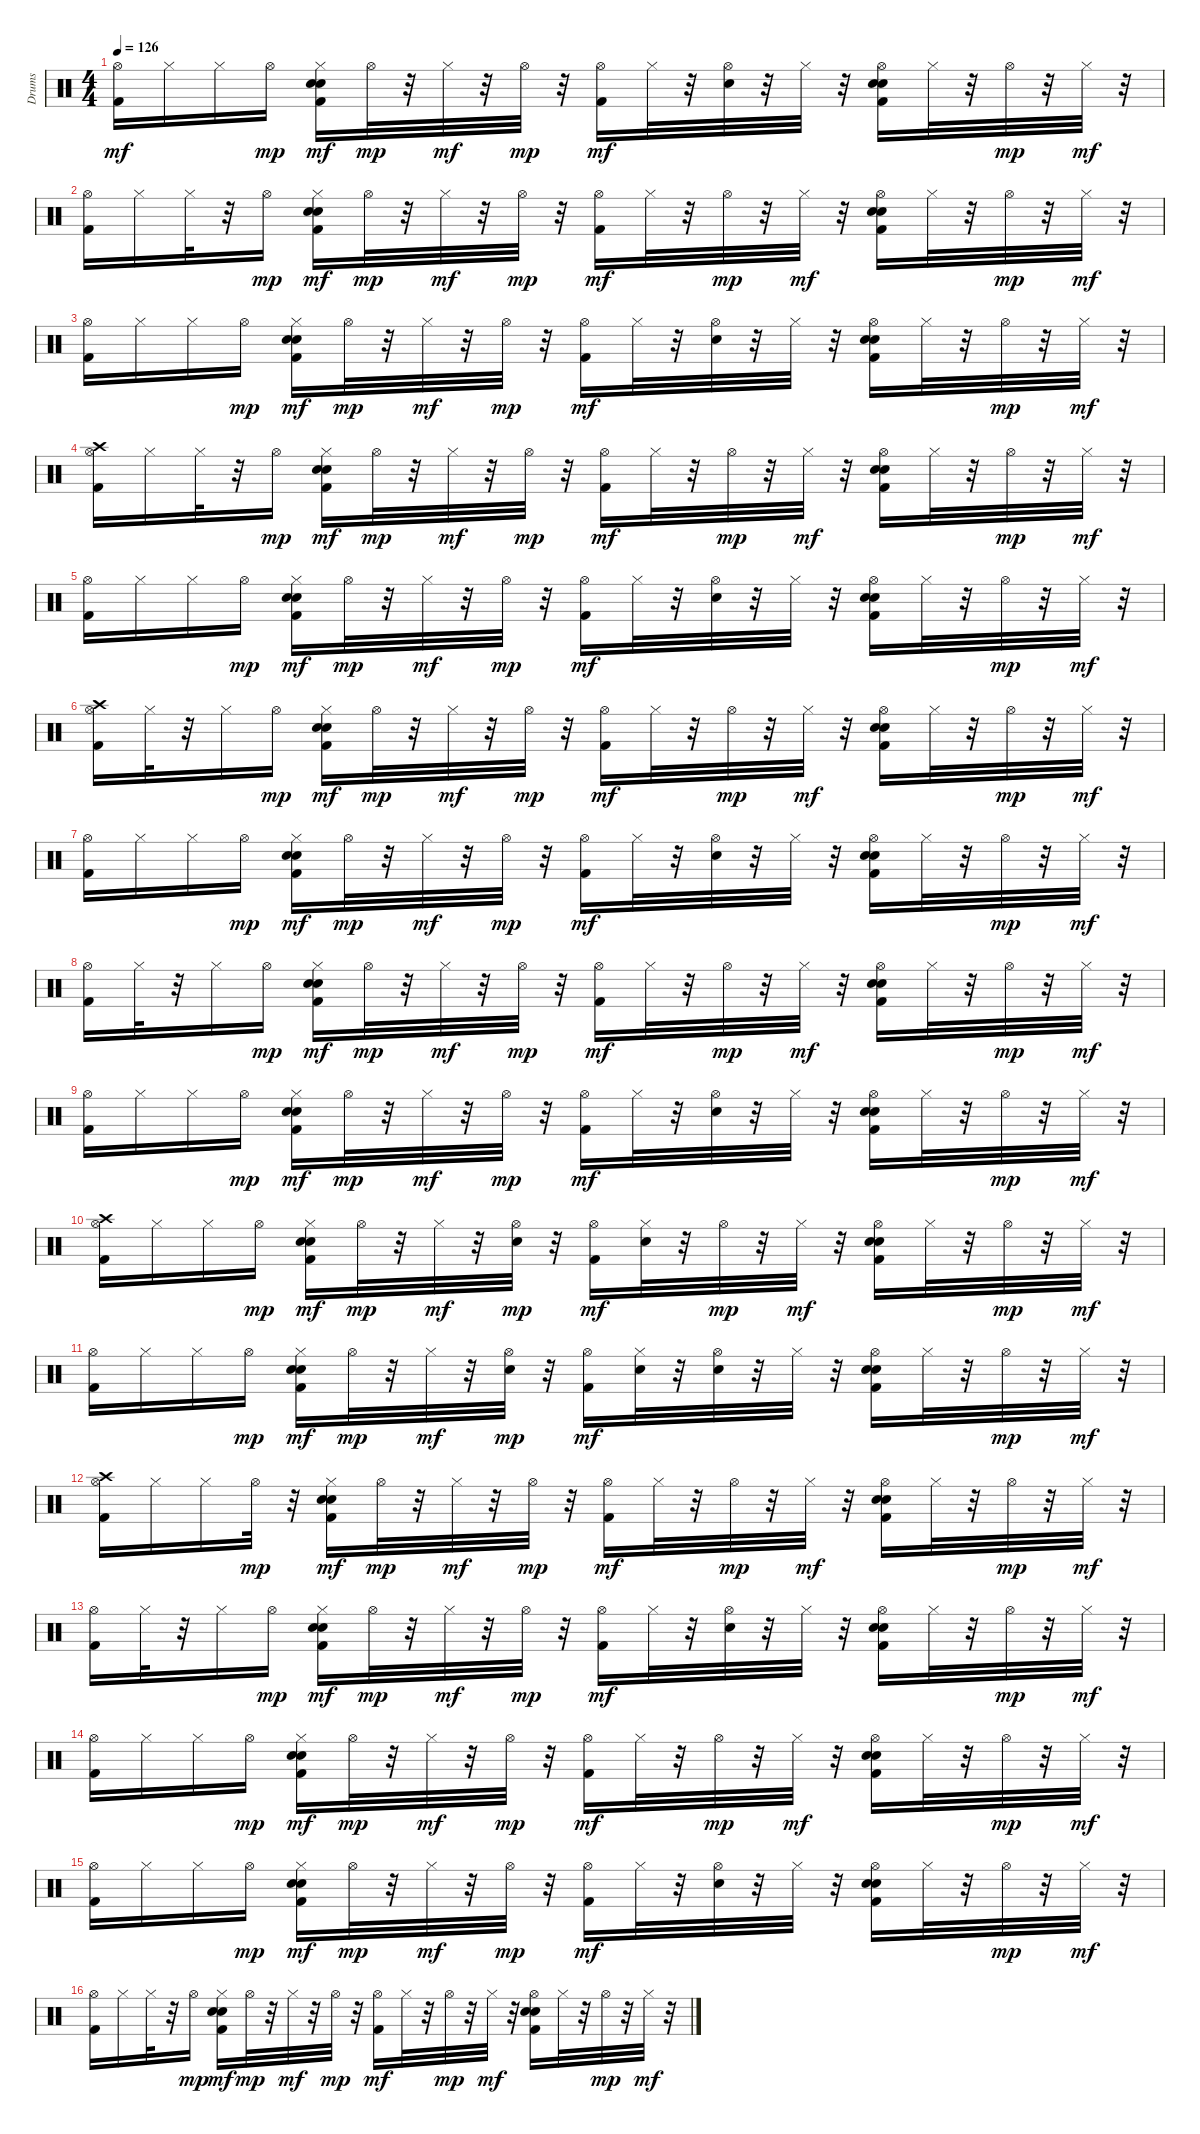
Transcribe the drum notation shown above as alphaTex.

\track ("Drums" "Drums") {instrument percussion}
\staff {score}
\articulation defaults
\ts (4 4)
\tempo 126
\clef neutral
\ks c
("Hi-Hat (open)" "Kick (hit) 2").16{dy mf} "Hi-Hat (closed)".16 "Hi-Hat (closed)".16 "Hi-Hat (open)".16{dy mp} ("Electric Snare (hit)" "Hi-Hat (closed)" "Hand Clap (hit)" "Kick (hit) 2").16{dy mf} "Hi-Hat (open)".32{dy mp} r.32 "Hi-Hat (closed)".32{dy mf} r.32 "Hi-Hat (open)".32{dy mp} r.32 ("Hi-Hat (open)" "Kick (hit) 2").16{dy mf} "Hi-Hat (closed)".32 r.32 ("Hi-Hat (open)" "Hand Clap (hit)").32 r.32 "Hi-Hat (closed)".32 r.32 ("Electric Snare (hit)" "Hi-Hat (open)" "Hand Clap (hit)" "Kick (hit) 2").16 "Hi-Hat (closed)".32 r.32 "Hi-Hat (open)".32{dy mp} r.32 "Hi-Hat (closed)".32{dy mf} r.32 |
("Hi-Hat (open)" "Kick (hit) 2").16 "Hi-Hat (closed)".16 "Hi-Hat (closed)".32 r.32 "Hi-Hat (open)".16{dy mp} ("Electric Snare (hit)" "Hi-Hat (closed)" "Hand Clap (hit)" "Kick (hit) 2").16{dy mf} "Hi-Hat (open)".32{dy mp} r.32 "Hi-Hat (closed)".32{dy mf} r.32 "Hi-Hat (open)".32{dy mp} r.32 ("Hi-Hat (open)" "Kick (hit) 2").16{dy mf} "Hi-Hat (closed)".32 r.32 "Hi-Hat (open)".32{dy mp} r.32 "Hi-Hat (closed)".32{dy mf} r.32 ("Electric Snare (hit)" "Hi-Hat (open)" "Hand Clap (hit)" "Kick (hit) 2").16 "Hi-Hat (closed)".32 r.32 "Hi-Hat (open)".32{dy mp} r.32 "Hi-Hat (closed)".32{dy mf} r.32 |
("Hi-Hat (open)" "Kick (hit) 2").16 "Hi-Hat (closed)".16 "Hi-Hat (closed)".16 "Hi-Hat (open)".16{dy mp} ("Electric Snare (hit)" "Hi-Hat (closed)" "Hand Clap (hit)" "Kick (hit) 2").16{dy mf} "Hi-Hat (open)".32{dy mp} r.32 "Hi-Hat (closed)".32{dy mf} r.32 "Hi-Hat (open)".32{dy mp} r.32 ("Hi-Hat (open)" "Kick (hit) 2").16{dy mf} "Hi-Hat (closed)".32 r.32 ("Hi-Hat (open)" "Hand Clap (hit)").32 r.32 "Hi-Hat (closed)".32 r.32 ("Electric Snare (hit)" "Hi-Hat (open)" "Hand Clap (hit)" "Kick (hit) 2").16 "Hi-Hat (closed)".32 r.32 "Hi-Hat (open)".32{dy mp} r.32 "Hi-Hat (closed)".32{dy mf} r.32 |
("Hi-Hat (open)" "Crash high (hit)" "Kick (hit) 2").16 "Hi-Hat (closed)".16 "Hi-Hat (closed)".32 r.32 "Hi-Hat (open)".16{dy mp} ("Electric Snare (hit)" "Hi-Hat (closed)" "Hand Clap (hit)" "Kick (hit) 2").16{dy mf} "Hi-Hat (open)".32{dy mp} r.32 "Hi-Hat (closed)".32{dy mf} r.32 "Hi-Hat (open)".32{dy mp} r.32 ("Hi-Hat (open)" "Kick (hit) 2").16{dy mf} "Hi-Hat (closed)".32 r.32 "Hi-Hat (open)".32{dy mp} r.32 "Hi-Hat (closed)".32{dy mf} r.32 ("Electric Snare (hit)" "Hi-Hat (open)" "Hand Clap (hit)" "Kick (hit) 2").16 "Hi-Hat (closed)".32 r.32 "Hi-Hat (open)".32{dy mp} r.32 "Hi-Hat (closed)".32{dy mf} r.32 |
("Hi-Hat (open)" "Kick (hit) 2").16 "Hi-Hat (closed)".16 "Hi-Hat (closed)".16 "Hi-Hat (open)".16{dy mp} ("Electric Snare (hit)" "Hi-Hat (closed)" "Hand Clap (hit)" "Kick (hit) 2").16{dy mf} "Hi-Hat (open)".32{dy mp} r.32 "Hi-Hat (closed)".32{dy mf} r.32 "Hi-Hat (open)".32{dy mp} r.32 ("Hi-Hat (open)" "Kick (hit) 2").16{dy mf} "Hi-Hat (closed)".32 r.32 ("Hi-Hat (open)" "Hand Clap (hit)").32 r.32 "Hi-Hat (closed)".32 r.32 ("Electric Snare (hit)" "Hi-Hat (open)" "Hand Clap (hit)" "Kick (hit) 2").16 "Hi-Hat (closed)".32 r.32 "Hi-Hat (open)".32{dy mp} r.32 "Hi-Hat (closed)".32{dy mf} r.32 |
("Hi-Hat (open)" "Crash high (hit)" "Kick (hit) 2").16 "Hi-Hat (closed)".32 r.32 "Hi-Hat (closed)".16 "Hi-Hat (open)".16{dy mp} ("Electric Snare (hit)" "Hi-Hat (closed)" "Hand Clap (hit)" "Kick (hit) 2").16{dy mf} "Hi-Hat (open)".32{dy mp} r.32 "Hi-Hat (closed)".32{dy mf} r.32 "Hi-Hat (open)".32{dy mp} r.32 ("Hi-Hat (open)" "Kick (hit) 2").16{dy mf} "Hi-Hat (closed)".32 r.32 "Hi-Hat (open)".32{dy mp} r.32 "Hi-Hat (closed)".32{dy mf} r.32 ("Electric Snare (hit)" "Hi-Hat (open)" "Hand Clap (hit)" "Kick (hit) 2").16 "Hi-Hat (closed)".32 r.32 "Hi-Hat (open)".32{dy mp} r.32 "Hi-Hat (closed)".32{dy mf} r.32 |
("Hi-Hat (open)" "Kick (hit) 2").16 "Hi-Hat (closed)".16 "Hi-Hat (closed)".16 "Hi-Hat (open)".16{dy mp} ("Electric Snare (hit)" "Hi-Hat (closed)" "Hand Clap (hit)" "Kick (hit) 2").16{dy mf} "Hi-Hat (open)".32{dy mp} r.32 "Hi-Hat (closed)".32{dy mf} r.32 "Hi-Hat (open)".32{dy mp} r.32 ("Hi-Hat (open)" "Kick (hit) 2").16{dy mf} "Hi-Hat (closed)".32 r.32 ("Hi-Hat (open)" "Hand Clap (hit)").32 r.32 "Hi-Hat (closed)".32 r.32 ("Electric Snare (hit)" "Hi-Hat (open)" "Hand Clap (hit)" "Kick (hit) 2").16 "Hi-Hat (closed)".32 r.32 "Hi-Hat (open)".32{dy mp} r.32 "Hi-Hat (closed)".32{dy mf} r.32 |
("Hi-Hat (open)" "Kick (hit) 2").16 "Hi-Hat (closed)".32 r.32 "Hi-Hat (closed)".16 "Hi-Hat (open)".16{dy mp} ("Electric Snare (hit)" "Hi-Hat (closed)" "Hand Clap (hit)" "Kick (hit) 2").16{dy mf} "Hi-Hat (open)".32{dy mp} r.32 "Hi-Hat (closed)".32{dy mf} r.32 "Hi-Hat (open)".32{dy mp} r.32 ("Hi-Hat (open)" "Kick (hit) 2").16{dy mf} "Hi-Hat (closed)".32 r.32 "Hi-Hat (open)".32{dy mp} r.32 "Hi-Hat (closed)".32{dy mf} r.32 ("Electric Snare (hit)" "Hi-Hat (open)" "Hand Clap (hit)" "Kick (hit) 2").16 "Hi-Hat (closed)".32 r.32 "Hi-Hat (open)".32{dy mp} r.32 "Hi-Hat (closed)".32{dy mf} r.32 |
("Hi-Hat (open)" "Kick (hit) 2").16 "Hi-Hat (closed)".16 "Hi-Hat (closed)".16 "Hi-Hat (open)".16{dy mp} ("Electric Snare (hit)" "Hi-Hat (closed)" "Hand Clap (hit)" "Kick (hit) 2").16{dy mf} "Hi-Hat (open)".32{dy mp} r.32 "Hi-Hat (closed)".32{dy mf} r.32 "Hi-Hat (open)".32{dy mp} r.32 ("Hi-Hat (open)" "Kick (hit) 2").16{dy mf} "Hi-Hat (closed)".32 r.32 ("Hi-Hat (open)" "Hand Clap (hit)").32 r.32 "Hi-Hat (closed)".32 r.32 ("Electric Snare (hit)" "Hi-Hat (open)" "Hand Clap (hit)" "Kick (hit) 2").16 "Hi-Hat (closed)".32 r.32 "Hi-Hat (open)".32{dy mp} r.32 "Hi-Hat (closed)".32{dy mf} r.32 |
("Hi-Hat (open)" "Crash high (hit)" "Kick (hit) 2").16 "Hi-Hat (closed)".16 "Hi-Hat (closed)".16 "Hi-Hat (open)".16{dy mp} ("Electric Snare (hit)" "Hi-Hat (closed)" "Hand Clap (hit)" "Kick (hit) 2").16{dy mf} "Hi-Hat (open)".32{dy mp} r.32 "Hi-Hat (closed)".32{dy mf} r.32 ("Snare (hit) 2" "Hi-Hat (open)").32{dy mp} r.32 ("Hi-Hat (open)" "Kick (hit) 2").16{dy mf} ("Snare (hit) 2" "Hi-Hat (closed)").32 r.32 "Hi-Hat (open)".32{dy mp} r.32 "Hi-Hat (closed)".32{dy mf} r.32 ("Electric Snare (hit)" "Hi-Hat (open)" "Hand Clap (hit)" "Kick (hit) 2").16 "Hi-Hat (closed)".32 r.32 "Hi-Hat (open)".32{dy mp} r.32 "Hi-Hat (closed)".32{dy mf} r.32 |
("Hi-Hat (open)" "Kick (hit) 2").16 "Hi-Hat (closed)".16 "Hi-Hat (closed)".16 "Hi-Hat (open)".16{dy mp} ("Electric Snare (hit)" "Hi-Hat (closed)" "Hand Clap (hit)" "Kick (hit) 2").16{dy mf} "Hi-Hat (open)".32{dy mp} r.32 "Hi-Hat (closed)".32{dy mf} r.32 ("Snare (hit) 2" "Hi-Hat (open)").32{dy mp} r.32 ("Hi-Hat (open)" "Kick (hit) 2").16{dy mf} ("Snare (hit) 2" "Hi-Hat (closed)").32 r.32 ("Hi-Hat (open)" "Hand Clap (hit)").32 r.32 "Hi-Hat (closed)".32 r.32 ("Electric Snare (hit)" "Hi-Hat (open)" "Hand Clap (hit)" "Kick (hit) 2").16 "Hi-Hat (closed)".32 r.32 "Hi-Hat (open)".32{dy mp} r.32 "Hi-Hat (closed)".32{dy mf} r.32 |
("Hi-Hat (open)" "Crash high (hit)" "Kick (hit) 2").16 "Hi-Hat (closed)".16 "Hi-Hat (closed)".16 "Hi-Hat (open)".32{dy mp} r.32 ("Electric Snare (hit)" "Hi-Hat (closed)" "Hand Clap (hit)" "Kick (hit) 2").16{dy mf} "Hi-Hat (open)".32{dy mp} r.32 "Hi-Hat (closed)".32{dy mf} r.32 "Hi-Hat (open)".32{dy mp} r.32 ("Hi-Hat (open)" "Kick (hit) 2").16{dy mf} "Hi-Hat (closed)".32 r.32 "Hi-Hat (open)".32{dy mp} r.32 "Hi-Hat (closed)".32{dy mf} r.32 ("Electric Snare (hit)" "Hi-Hat (open)" "Hand Clap (hit)" "Kick (hit) 2").16 "Hi-Hat (closed)".32 r.32 "Hi-Hat (open)".32{dy mp} r.32 "Hi-Hat (closed)".32{dy mf} r.32 |
("Hi-Hat (open)" "Kick (hit) 2").16 "Hi-Hat (closed)".32 r.32 "Hi-Hat (closed)".16 "Hi-Hat (open)".16{dy mp} ("Electric Snare (hit)" "Hi-Hat (closed)" "Hand Clap (hit)" "Kick (hit) 2").16{dy mf} "Hi-Hat (open)".32{dy mp} r.32 "Hi-Hat (closed)".32{dy mf} r.32 "Hi-Hat (open)".32{dy mp} r.32 ("Hi-Hat (open)" "Kick (hit) 2").16{dy mf} "Hi-Hat (closed)".32 r.32 ("Hi-Hat (open)" "Hand Clap (hit)").32 r.32 "Hi-Hat (closed)".32 r.32 ("Electric Snare (hit)" "Hi-Hat (open)" "Hand Clap (hit)" "Kick (hit) 2").16 "Hi-Hat (closed)".32 r.32 "Hi-Hat (open)".32{dy mp} r.32 "Hi-Hat (closed)".32{dy mf} r.32 |
("Hi-Hat (open)" "Kick (hit) 2").16 "Hi-Hat (closed)".16 "Hi-Hat (closed)".16 "Hi-Hat (open)".16{dy mp} ("Electric Snare (hit)" "Hi-Hat (closed)" "Hand Clap (hit)" "Kick (hit) 2").16{dy mf} "Hi-Hat (open)".32{dy mp} r.32 "Hi-Hat (closed)".32{dy mf} r.32 "Hi-Hat (open)".32{dy mp} r.32 ("Hi-Hat (open)" "Kick (hit) 2").16{dy mf} "Hi-Hat (closed)".32 r.32 "Hi-Hat (open)".32{dy mp} r.32 "Hi-Hat (closed)".32{dy mf} r.32 ("Electric Snare (hit)" "Hi-Hat (open)" "Hand Clap (hit)" "Kick (hit) 2").16 "Hi-Hat (closed)".32 r.32 "Hi-Hat (open)".32{dy mp} r.32 "Hi-Hat (closed)".32{dy mf} r.32 |
("Hi-Hat (open)" "Kick (hit) 2").16 "Hi-Hat (closed)".16 "Hi-Hat (closed)".16 "Hi-Hat (open)".16{dy mp} ("Electric Snare (hit)" "Hi-Hat (closed)" "Hand Clap (hit)" "Kick (hit) 2").16{dy mf} "Hi-Hat (open)".32{dy mp} r.32 "Hi-Hat (closed)".32{dy mf} r.32 "Hi-Hat (open)".32{dy mp} r.32 ("Hi-Hat (open)" "Kick (hit) 2").16{dy mf} "Hi-Hat (closed)".32 r.32 ("Hi-Hat (open)" "Hand Clap (hit)").32 r.32 "Hi-Hat (closed)".32 r.32 ("Electric Snare (hit)" "Hi-Hat (open)" "Hand Clap (hit)" "Kick (hit) 2").16 "Hi-Hat (closed)".32 r.32 "Hi-Hat (open)".32{dy mp} r.32 "Hi-Hat (closed)".32{dy mf} r.32 |
("Hi-Hat (open)" "Kick (hit) 2").16 "Hi-Hat (closed)".16 "Hi-Hat (closed)".32 r.32 "Hi-Hat (open)".16{dy mp} ("Electric Snare (hit)" "Hi-Hat (closed)" "Hand Clap (hit)" "Kick (hit) 2").16{dy mf} "Hi-Hat (open)".32{dy mp} r.32 "Hi-Hat (closed)".32{dy mf} r.32 "Hi-Hat (open)".32{dy mp} r.32 ("Hi-Hat (open)" "Kick (hit) 2").16{dy mf} "Hi-Hat (closed)".32 r.32 "Hi-Hat (open)".32{dy mp} r.32 "Hi-Hat (closed)".32{dy mf} r.32 ("Electric Snare (hit)" "Hi-Hat (open)" "Hand Clap (hit)" "Kick (hit) 2").16 "Hi-Hat (closed)".32 r.32 "Hi-Hat (open)".32{dy mp} r.32 "Hi-Hat (closed)".32{dy mf} r.32
